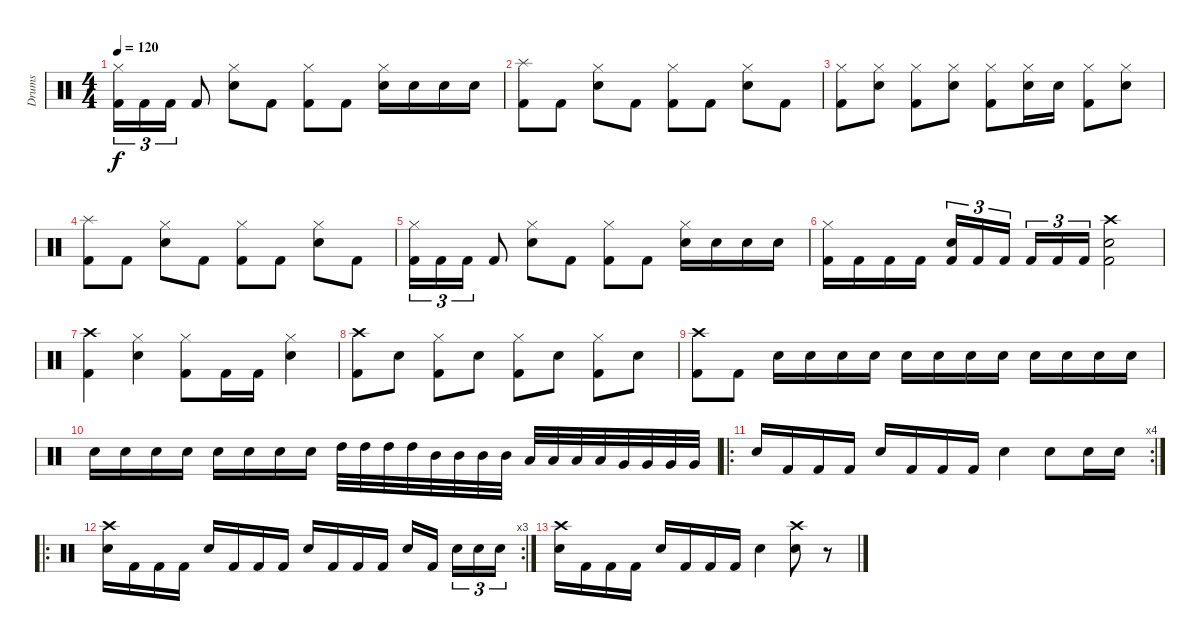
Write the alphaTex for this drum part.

\track ("Drums" "Drums") {instrument percussion}
\staff {score}
\articulation defaults
\ts (4 4)
\tempo 120
\clef neutral
\ks c
("Hi-Hat (closed)" "Kick (hit) 2").16{tu (3 2) dy f} "Kick (hit) 2".16{tu (3 2)} "Kick (hit) 2".16{tu (3 2)} "Kick (hit) 2".8 ("Hi-Hat (closed)" "Electric Snare (hit)").8 "Kick (hit) 2".8 ("Hi-Hat (closed)" "Kick (hit) 2").8 "Kick (hit) 2".8 ("Hi-Hat (closed)" "Electric Snare (hit)").16 "Electric Snare (hit)".16 "Electric Snare (hit)".16 "Electric Snare (hit)".16 |
("Splash (hit)" "Kick (hit) 2").8 "Kick (hit) 2".8 ("Hi-Hat (closed)" "Electric Snare (hit)").8 "Kick (hit) 2".8 ("Hi-Hat (closed)" "Kick (hit) 2").8 "Kick (hit) 2".8 ("Hi-Hat (closed)" "Electric Snare (hit)").8 "Kick (hit) 2".8 |
("Hi-Hat (closed)" "Kick (hit) 2").8 ("Hi-Hat (closed)" "Electric Snare (hit)").8 ("Hi-Hat (closed)" "Kick (hit) 2").8 ("Hi-Hat (closed)" "Electric Snare (hit)").8 ("Hi-Hat (closed)" "Kick (hit) 2").8 ("Hi-Hat (closed)" "Electric Snare (hit)").16 "Electric Snare (hit)".16 ("Hi-Hat (closed)" "Kick (hit) 2").8 ("Hi-Hat (closed)" "Electric Snare (hit)").8 |
("Splash (hit)" "Kick (hit) 2").8 "Kick (hit) 2".8 ("Hi-Hat (closed)" "Electric Snare (hit)").8 "Kick (hit) 2".8 ("Hi-Hat (closed)" "Kick (hit) 2").8 "Kick (hit) 2".8 ("Hi-Hat (closed)" "Electric Snare (hit)").8 "Kick (hit) 2".8 |
("Hi-Hat (closed)" "Kick (hit) 2").16{tu (3 2)} "Kick (hit) 2".16{tu (3 2)} "Kick (hit) 2".16{tu (3 2)} "Kick (hit) 2".8 ("Hi-Hat (closed)" "Electric Snare (hit)").8 "Kick (hit) 2".8 ("Hi-Hat (closed)" "Kick (hit) 2").8 "Kick (hit) 2".8 ("Hi-Hat (closed)" "Electric Snare (hit)").16 "Electric Snare (hit)".16 "Electric Snare (hit)".16 "Electric Snare (hit)".16 |
("Hi-Hat (closed)" "Kick (hit) 2").16 "Kick (hit) 2".16 "Kick (hit) 2".16 "Kick (hit) 2".16 ("Electric Snare (hit)" "Kick (hit) 2").16{tu (3 2)} "Kick (hit) 2".16{tu (3 2)} "Kick (hit) 2".16{tu (3 2)} "Kick (hit) 2".16{tu (3 2)} "Kick (hit) 2".16{tu (3 2)} "Kick (hit) 2".16{tu (3 2)} ("Crash high (hit)" "Electric Snare (hit)" "Kick (hit) 2").2 |
("Crash high (hit)" "Kick (hit) 2").4 ("Hi-Hat (closed)" "Electric Snare (hit)").4 ("Hi-Hat (closed)" "Kick (hit) 2").8 "Kick (hit) 2".16 "Kick (hit) 2".16 ("Hi-Hat (closed)" "Electric Snare (hit)").4 |
("Crash high (hit)" "Kick (hit) 2").8 "Electric Snare (hit)".8 ("Hi-Hat (closed)" "Kick (hit) 2").8 "Electric Snare (hit)".8 ("Hi-Hat (closed)" "Kick (hit) 2").8 "Electric Snare (hit)".8 ("Hi-Hat (closed)" "Kick (hit) 2").8 "Electric Snare (hit)".8 |
("Crash high (hit)" "Kick (hit) 2").8 "Kick (hit) 2".8 "Electric Snare (hit)".16 "Electric Snare (hit)".16 "Electric Snare (hit)".16 "Electric Snare (hit)".16 "Electric Snare (hit)".16 "Electric Snare (hit)".16 "Electric Snare (hit)".16 "Electric Snare (hit)".16 "Electric Snare (hit)".16 "Electric Snare (hit)".16 "Electric Snare (hit)".16 "Electric Snare (hit)".16 |
"Electric Snare (hit)".16 "Electric Snare (hit)".16 "Electric Snare (hit)".16 "Electric Snare (hit)".16 "Electric Snare (hit)".16 "Electric Snare (hit)".16 "Electric Snare (hit)".16 "Electric Snare (hit)".16 "High Tom (hit)".32 "High Tom (hit)".32 "High Tom (hit)".32 "High Tom (hit)".32 "Mid Tom (hit)".32 "Mid Tom (hit)".32 "Mid Tom (hit)".32 "Mid Tom (hit)".32 "Low Tom (hit)".32 "Low Tom (hit)".32 "Low Tom (hit)".32 "Low Tom (hit)".32 "Very Low Tom (hit)".32 "Very Low Tom (hit)".32 "Very Low Tom (hit)".32 "Very Low Tom (hit)".32 |
\ro
\rc 4 "Electric Snare (hit)".16 "Kick (hit) 2".16 "Kick (hit) 2".16 "Kick (hit) 2".16 "Electric Snare (hit)".16 "Kick (hit) 2".16 "Kick (hit) 2".16 "Kick (hit) 2".16 "Electric Snare (hit)".4 "Electric Snare (hit)".8 "Electric Snare (hit)".16 "Electric Snare (hit)".16
|
\ro
\rc 3
("Crash high (hit)" "Electric Snare (hit)").16 "Kick (hit) 2".16 "Kick (hit) 2".16 "Kick (hit) 2".16 "Electric Snare (hit)".16 "Kick (hit) 2".16 "Kick (hit) 2".16 "Kick (hit) 2".16 "Electric Snare (hit)".16 "Kick (hit) 2".16 "Kick (hit) 2".16 "Kick (hit) 2".16 "Electric Snare (hit)".16 "Kick (hit) 2".16 "Electric Snare (hit)".16{tu (3 2)} "Electric Snare (hit)".16{tu (3 2)} "Electric Snare (hit)".16{tu (3 2)} |
("Crash high (hit)" "Electric Snare (hit)").16 "Kick (hit) 2".16 "Kick (hit) 2".16 "Kick (hit) 2".16 "Electric Snare (hit)".16 "Kick (hit) 2".16 "Kick (hit) 2".16 "Kick (hit) 2".16 "Electric Snare (hit)".4 ("Crash high (hit)" "Electric Snare (hit)").8 r.8
